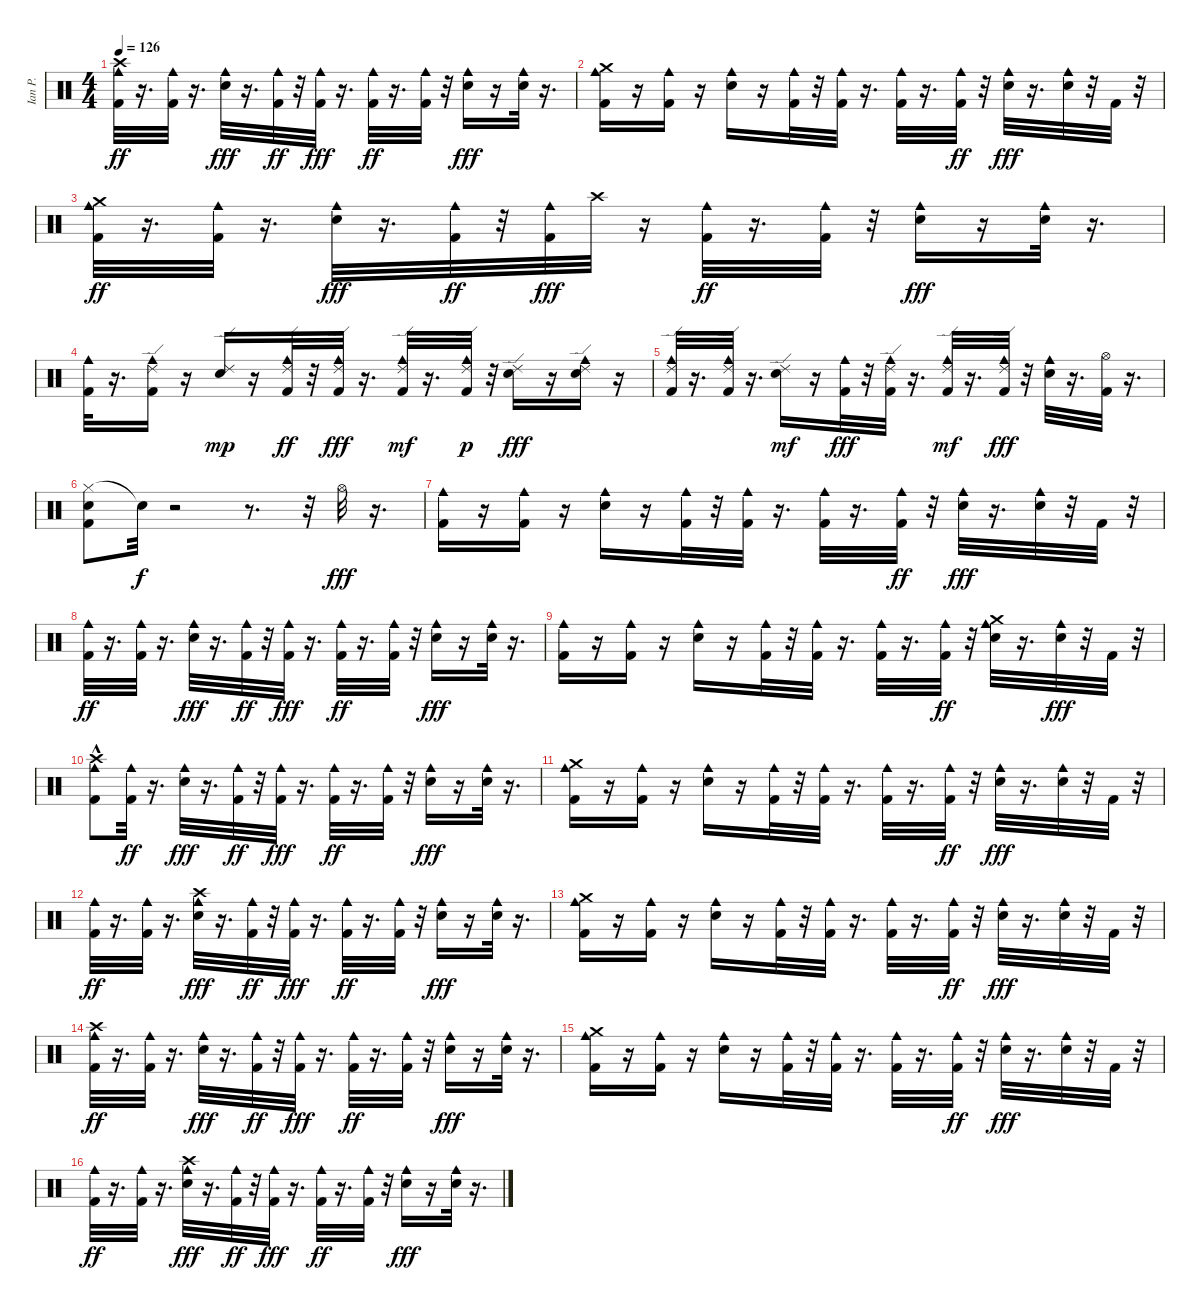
\track ("Ian P." "Ian P.") {instrument percussion}
\staff {score}
\articulation defaults
\ts (4 4)
\tempo 126
\clef neutral
\ks c
("Kick (hit) 2" "Crash high (hit)" "Cowbell medium (hit)").32{dy ff} r.16{d} ("Kick (hit) 2" "Cowbell medium (hit)").32 r.16{d} ("Cowbell medium (hit)" "Snare (hit) 2").32{dy fff} r.16{d} ("Cowbell medium (hit)" "Kick (hit) 2").32{dy ff} r.32 ("Cowbell medium (hit)" "Kick (hit) 2").32{dy fff} r.16{d} ("Kick (hit) 2" "Cowbell medium (hit)").32{dy ff} r.16{d} ("Cowbell medium (hit)" "Kick (hit) 2").32 r.32 ("Cowbell medium (hit)" "Snare (hit) 2").16{dy fff} r.16 ("Cowbell medium (hit)" "Snare (hit) 2").32 r.16{d} |
("Cowbell medium (hit)" "Crash medium (hit)" "Kick (hit) 2").16 r.16 ("Cowbell medium (hit)" "Kick (hit) 2").16 r.16 ("Cowbell medium (hit)" "Snare (hit) 2").16 r.16 ("Cowbell medium (hit)" "Kick (hit) 2").32 r.32 ("Cowbell medium (hit)" "Kick (hit) 2").32 r.16{d} ("Kick (hit) 2" "Cowbell medium (hit)").32 r.16{d} ("Kick (hit) 2" "Cowbell medium (hit)").32{dy ff} r.32 ("Snare (hit) 2" "Cowbell medium (hit)").32{dy fff} r.16{d} ("Snare (hit) 2" "Cowbell medium (hit)").32 r.32 "Kick (hit) 2".32 r.32 |
("Kick (hit) 2" "Crash medium (hit)" "Cowbell medium (hit)").32{dy ff} r.16{d} ("Kick (hit) 2" "Cowbell medium (hit)").32 r.16{d} ("Cowbell medium (hit)" "Snare (hit) 2").32{dy fff} r.16{d} ("Cowbell medium (hit)" "Kick (hit) 2").32{dy ff} r.32 ("Cowbell medium (hit)" "Kick (hit) 2").32{dy fff} "Crash high (hit)".32 r.16 ("Kick (hit) 2" "Cowbell medium (hit)").32{dy ff} r.16{d} ("Cowbell medium (hit)" "Kick (hit) 2").32 r.32 ("Cowbell medium (hit)" "Snare (hit) 2").16{dy fff} r.16 ("Cowbell medium (hit)" "Snare (hit) 2").32 r.16{d} |
("Cowbell medium (hit)" "Kick (hit) 2").32 r.16{d} ("Ride (edge) 2" "Cowbell medium (hit)" "Kick (hit) 2").16 r.16 ("Snare (hit) 2" "Ride (edge) 2").16{dy mp} r.16 ("Cowbell medium (hit)" "Kick (hit) 2" "Ride (edge) 2").32{dy ff} r.32 ("Cowbell medium (hit)" "Kick (hit) 2" "Ride (edge) 2").32{dy fff} r.16{d} ("Kick (hit) 2" "Cowbell medium (hit)" "Ride (edge) 2").32{dy mf} r.16{d} ("Kick (hit) 2" "Cowbell medium (hit)" "Ride (edge) 2").32{dy p} r.32 ("Snare (hit) 2" "Ride (edge) 2").16{dy fff} r.16 ("Cowbell medium (hit)" "Ride (edge) 2" "Snare (hit) 2").16 r.16 |
("Cowbell medium (hit)" "Ride (edge) 2" "Kick (hit) 2").32 r.16{d} ("Ride (edge) 2" "Kick (hit) 2" "Cowbell medium (hit)").32 r.16{d} ("Snare (hit) 2" "Ride (edge) 2").16{dy mf} r.16 ("Kick (hit) 2" "Cowbell medium (hit)").32{dy fff} r.32 ("Ride (edge) 2" "Kick (hit) 2" "Cowbell medium (hit)").32 r.16{d} ("Kick (hit) 2" "Cowbell medium (hit)" "Ride (edge) 2").32{dy mf} r.16{d} ("Ride (edge) 2" "Cowbell medium (hit)" "Kick (hit) 2").32{dy fff} r.32 ("Cowbell medium (hit)" "Snare (hit) 2").32 r.16{d} ("Hi-Hat (open)" "Kick (hit) 2").32 r.16{d} |
("Hi-Hat (closed)" "Kick (hit) 2" "Snare (hit) 2").8 "Snare (hit)"{t}.32{dy f} r.2 r.8{d} r.32 "Hi-Hat (open)".32{dy fff} r.16{d} |
("Cowbell medium (hit)" "Kick (hit) 2").16 r.16 ("Cowbell medium (hit)" "Kick (hit) 2").16 r.16 ("Cowbell medium (hit)" "Snare (hit) 2").16 r.16 ("Cowbell medium (hit)" "Kick (hit) 2").32 r.32 ("Cowbell medium (hit)" "Kick (hit) 2").32 r.16{d} ("Kick (hit) 2" "Cowbell medium (hit)").32 r.16{d} ("Kick (hit) 2" "Cowbell medium (hit)").32{dy ff} r.32 ("Snare (hit) 2" "Cowbell medium (hit)").32{dy fff} r.16{d} ("Snare (hit) 2" "Cowbell medium (hit)").32 r.32 "Kick (hit) 2".32 r.32 |
("Kick (hit) 2" "Cowbell medium (hit)").32{dy ff} r.16{d} ("Kick (hit) 2" "Cowbell medium (hit)").32 r.16{d} ("Cowbell medium (hit)" "Snare (hit) 2").32{dy fff} r.16{d} ("Cowbell medium (hit)" "Kick (hit) 2").32{dy ff} r.32 ("Cowbell medium (hit)" "Kick (hit) 2").32{dy fff} r.16{d} ("Kick (hit) 2" "Cowbell medium (hit)").32{dy ff} r.16{d} ("Cowbell medium (hit)" "Kick (hit) 2").32 r.32 ("Cowbell medium (hit)" "Snare (hit) 2").16{dy fff} r.16 ("Cowbell medium (hit)" "Snare (hit) 2").32 r.16{d} |
("Cowbell medium (hit)" "Kick (hit) 2").16 r.16 ("Cowbell medium (hit)" "Kick (hit) 2").16 r.16 ("Cowbell medium (hit)" "Snare (hit) 2").16 r.16 ("Cowbell medium (hit)" "Kick (hit) 2").32 r.32 ("Cowbell medium (hit)" "Kick (hit) 2").32 r.16{d} ("Kick (hit) 2" "Cowbell medium (hit)").32 r.16{d} ("Kick (hit) 2" "Cowbell medium (hit)").32{dy ff} r.32 ("Snare (hit) 2" "Cowbell medium (hit)" "Crash medium (hit)").32 r.16{d} ("Snare (hit) 2" "Cowbell medium (hit)").32{dy fff} r.32 "Kick (hit) 2".32 r.32 |
("Kick (hit) 2" "Cowbell medium (hit)" "Crash high (hit)"{hac}).8 ("Kick (hit) 2" "Cowbell medium (hit)").32{dy ff} r.16{d} ("Cowbell medium (hit)" "Snare (hit) 2").32{dy fff} r.16{d} ("Cowbell medium (hit)" "Kick (hit) 2").32{dy ff} r.32 ("Cowbell medium (hit)" "Kick (hit) 2").32{dy fff} r.16{d} ("Kick (hit) 2" "Cowbell medium (hit)").32{dy ff} r.16{d} ("Cowbell medium (hit)" "Kick (hit) 2").32 r.32 ("Cowbell medium (hit)" "Snare (hit) 2").16{dy fff} r.16 ("Cowbell medium (hit)" "Snare (hit) 2").32 r.16{d} |
("Cowbell medium (hit)" "Kick (hit) 2" "Crash medium (hit)").16 r.16 ("Cowbell medium (hit)" "Kick (hit) 2").16 r.16 ("Cowbell medium (hit)" "Snare (hit) 2").16 r.16 ("Cowbell medium (hit)" "Kick (hit) 2").32 r.32 ("Cowbell medium (hit)" "Kick (hit) 2").32 r.16{d} ("Kick (hit) 2" "Cowbell medium (hit)").32 r.16{d} ("Kick (hit) 2" "Cowbell medium (hit)").32{dy ff} r.32 ("Snare (hit) 2" "Cowbell medium (hit)").32{dy fff} r.16{d} ("Snare (hit) 2" "Cowbell medium (hit)").32 r.32 "Kick (hit) 2".32 r.32 |
("Kick (hit) 2" "Cowbell medium (hit)").32{dy ff} r.16{d} ("Kick (hit) 2" "Cowbell medium (hit)").32 r.16{d} ("Cowbell medium (hit)" "Snare (hit) 2" "Crash high (hit)").32{dy fff} r.16{d} ("Cowbell medium (hit)" "Kick (hit) 2").32{dy ff} r.32 ("Cowbell medium (hit)" "Kick (hit) 2").32{dy fff} r.16{d} ("Kick (hit) 2" "Cowbell medium (hit)").32{dy ff} r.16{d} ("Cowbell medium (hit)" "Kick (hit) 2").32 r.32 ("Cowbell medium (hit)" "Snare (hit) 2").16{dy fff} r.16 ("Cowbell medium (hit)" "Snare (hit) 2").32 r.16{d} |
("Cowbell medium (hit)" "Crash medium (hit)" "Kick (hit) 2").16 r.16 ("Cowbell medium (hit)" "Kick (hit) 2").16 r.16 ("Cowbell medium (hit)" "Snare (hit) 2").16 r.16 ("Cowbell medium (hit)" "Kick (hit) 2").32 r.32 ("Cowbell medium (hit)" "Kick (hit) 2").32 r.16{d} ("Kick (hit) 2" "Cowbell medium (hit)").32 r.16{d} ("Kick (hit) 2" "Cowbell medium (hit)").32{dy ff} r.32 ("Snare (hit) 2" "Cowbell medium (hit)").32{dy fff} r.16{d} ("Snare (hit) 2" "Cowbell medium (hit)").32 r.32 "Kick (hit) 2".32 r.32 |
("Kick (hit) 2" "Crash high (hit)" "Cowbell medium (hit)").32{dy ff} r.16{d} ("Kick (hit) 2" "Cowbell medium (hit)").32 r.16{d} ("Cowbell medium (hit)" "Snare (hit) 2").32{dy fff} r.16{d} ("Cowbell medium (hit)" "Kick (hit) 2").32{dy ff} r.32 ("Cowbell medium (hit)" "Kick (hit) 2").32{dy fff} r.16{d} ("Kick (hit) 2" "Cowbell medium (hit)").32{dy ff} r.16{d} ("Cowbell medium (hit)" "Kick (hit) 2").32 r.32 ("Cowbell medium (hit)" "Snare (hit) 2").16{dy fff} r.16 ("Cowbell medium (hit)" "Snare (hit) 2").32 r.16{d} |
("Cowbell medium (hit)" "Kick (hit) 2" "Crash medium (hit)").16 r.16 ("Cowbell medium (hit)" "Kick (hit) 2").16 r.16 ("Cowbell medium (hit)" "Snare (hit) 2").16 r.16 ("Cowbell medium (hit)" "Kick (hit) 2").32 r.32 ("Cowbell medium (hit)" "Kick (hit) 2").32 r.16{d} ("Kick (hit) 2" "Cowbell medium (hit)").32 r.16{d} ("Kick (hit) 2" "Cowbell medium (hit)").32{dy ff} r.32 ("Snare (hit) 2" "Cowbell medium (hit)").32{dy fff} r.16{d} ("Snare (hit) 2" "Cowbell medium (hit)").32 r.32 "Kick (hit) 2".32 r.32 |
("Kick (hit) 2" "Cowbell medium (hit)").32{dy ff} r.16{d} ("Kick (hit) 2" "Cowbell medium (hit)").32 r.16{d} ("Cowbell medium (hit)" "Snare (hit) 2" "Crash high (hit)").32{dy fff} r.16{d} ("Cowbell medium (hit)" "Kick (hit) 2").32{dy ff} r.32 ("Cowbell medium (hit)" "Kick (hit) 2").32{dy fff} r.16{d} ("Kick (hit) 2" "Cowbell medium (hit)").32{dy ff} r.16{d} ("Cowbell medium (hit)" "Kick (hit) 2").32 r.32 ("Cowbell medium (hit)" "Snare (hit) 2").16{dy fff} r.16 ("Cowbell medium (hit)" "Snare (hit) 2").32 r.16{d}
